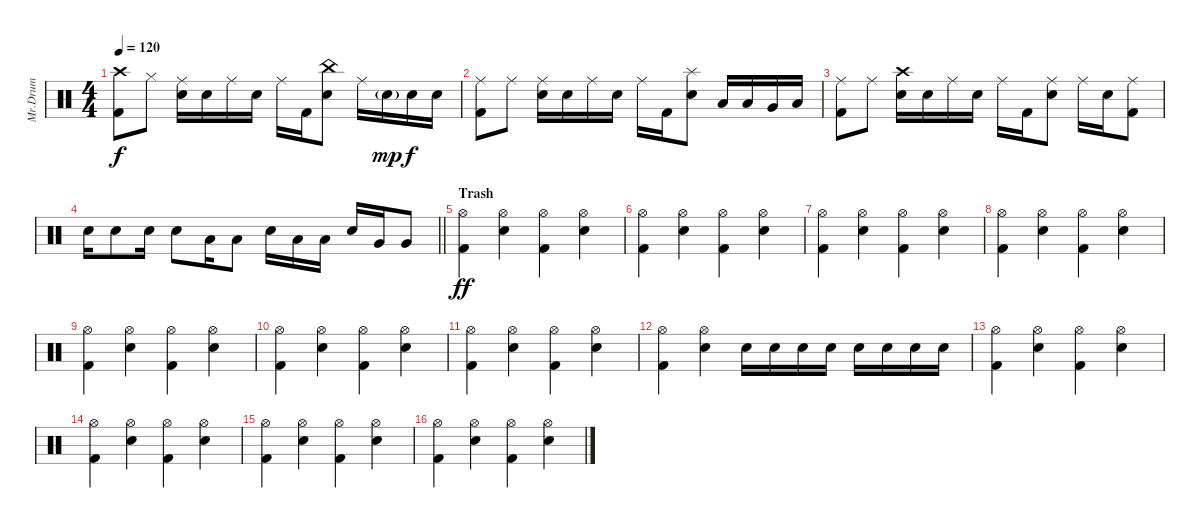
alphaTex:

\track ("Mr.Drum" "Mr.Drum") {instrument percussion}
\staff {score}
\articulation defaults
\ts (4 4)
\tempo 120
\clef neutral
\ks c
("Crash high (hit)" "Kick (hit) 2").8{dy f} "Hi-Hat (closed)".8 ("Ride (middle)" "Electric Snare (hit)").16 "Electric Snare (hit)".16 "Ride (middle)".16 "Electric Snare (hit)".16 "Ride (middle)".16 "Kick (hit) 2".16 ("China (hit)" "Electric Snare (hit)").8 "Ride (middle)".16 "Electric Snare (hit)"{g}.16{dy mp} "Electric Snare (hit)".16{dy f} "Electric Snare (hit)".16 |
("Ride (middle)" "Kick (hit) 2").8 "Ride (middle)".8 ("Ride (middle)" "Electric Snare (hit)").16 "Electric Snare (hit)".16 "Ride (middle)".16 "Electric Snare (hit)".16 "Ride (middle)".16 "Kick (hit) 2".16 ("Splash (hit)" "Electric Snare (hit)").8 "Low Tom (hit)".16 "Low Tom (hit)".16 "Very Low Tom (hit)".16 "Low Tom (hit)".16 |
("Ride (middle)" "Kick (hit) 2").8 "Ride (middle)".8 ("Crash high (hit)" "Electric Snare (hit)").16 "Electric Snare (hit)".16 "Ride (middle)".16 "Electric Snare (hit)".16 "Ride (middle)".16 "Kick (hit) 2".16 ("Ride (middle)" "Electric Snare (hit)").8 "Ride (middle)".16 "Electric Snare (hit)".16 ("Ride (middle)" "Kick (hit) 2").8 |
\barLineRight lightlight "Electric Snare (hit)".16 "Electric Snare (hit)".8 "Electric Snare (hit)".16 "Electric Snare (hit)".8 "Low Tom (hit)".16 "Low Tom (hit)".8 "Electric Snare (hit)".16 "Low Tom (hit)".16 "Low Tom (hit)".16 "Electric Snare (hit)".16 "Very Low Tom (hit)".16 "Very Low Tom (hit)".8
|
\section ("" "Trash")
("Hi-Hat (open)" "Kick (hit) 2").4{dy ff} ("Hi-Hat (open)" "Electric Snare (hit)").4 ("Hi-Hat (open)" "Kick (hit) 2").4 ("Hi-Hat (open)" "Electric Snare (hit)").4 |
("Hi-Hat (open)" "Kick (hit) 2").4 ("Hi-Hat (open)" "Electric Snare (hit)").4 ("Hi-Hat (open)" "Kick (hit) 2").4 ("Hi-Hat (open)" "Electric Snare (hit)").4 |
("Hi-Hat (open)" "Kick (hit) 2").4 ("Hi-Hat (open)" "Electric Snare (hit)").4 ("Hi-Hat (open)" "Kick (hit) 2").4 ("Hi-Hat (open)" "Electric Snare (hit)").4 |
("Hi-Hat (open)" "Kick (hit) 2").4 ("Hi-Hat (open)" "Electric Snare (hit)").4 ("Hi-Hat (open)" "Kick (hit) 2").4 ("Hi-Hat (open)" "Electric Snare (hit)").4 |
("Hi-Hat (open)" "Kick (hit) 2").4 ("Hi-Hat (open)" "Electric Snare (hit)").4 ("Hi-Hat (open)" "Kick (hit) 2").4 ("Hi-Hat (open)" "Electric Snare (hit)").4 |
("Hi-Hat (open)" "Kick (hit) 2").4 ("Hi-Hat (open)" "Electric Snare (hit)").4 ("Hi-Hat (open)" "Kick (hit) 2").4 ("Hi-Hat (open)" "Electric Snare (hit)").4 |
("Hi-Hat (open)" "Kick (hit) 2").4 ("Hi-Hat (open)" "Electric Snare (hit)").4 ("Hi-Hat (open)" "Kick (hit) 2").4 ("Hi-Hat (open)" "Electric Snare (hit)").4 |
("Hi-Hat (open)" "Kick (hit) 2").4 ("Hi-Hat (open)" "Electric Snare (hit)").4 "Electric Snare (hit)".16 "Electric Snare (hit)".16 "Electric Snare (hit)".16 "Electric Snare (hit)".16 "Electric Snare (hit)".16 "Electric Snare (hit)".16 "Electric Snare (hit)".16 "Electric Snare (hit)".16 |
("Hi-Hat (open)" "Kick (hit) 2").4 ("Hi-Hat (open)" "Electric Snare (hit)").4 ("Hi-Hat (open)" "Kick (hit) 2").4 ("Hi-Hat (open)" "Electric Snare (hit)").4 |
("Hi-Hat (open)" "Kick (hit) 2").4 ("Hi-Hat (open)" "Electric Snare (hit)").4 ("Hi-Hat (open)" "Kick (hit) 2").4 ("Hi-Hat (open)" "Electric Snare (hit)").4 |
("Hi-Hat (open)" "Kick (hit) 2").4 ("Hi-Hat (open)" "Electric Snare (hit)").4 ("Hi-Hat (open)" "Kick (hit) 2").4 ("Hi-Hat (open)" "Electric Snare (hit)").4 |
("Hi-Hat (open)" "Kick (hit) 2").4 ("Hi-Hat (open)" "Electric Snare (hit)").4 ("Hi-Hat (open)" "Kick (hit) 2").4 ("Hi-Hat (open)" "Electric Snare (hit)").4
